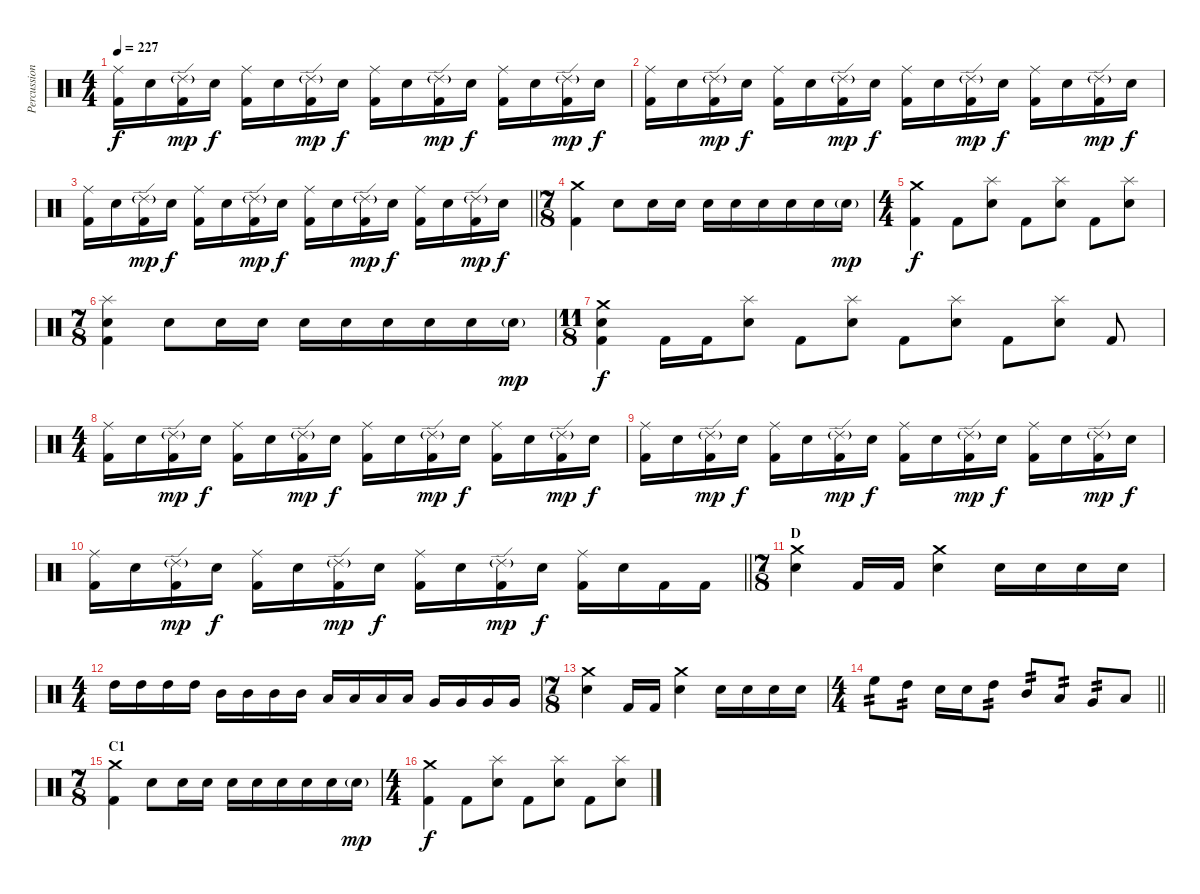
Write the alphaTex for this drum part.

\track ("Percussion" "Percussion") {instrument percussion}
\staff {score}
\articulation defaults
\ts (4 4)
\tempo 227
\clef neutral
\ks c
("Ride (middle)" "Kick (hit) 2").16{dy f} "Electric Snare (hit)".16 ("Ride (edge) 2"{g} "Kick (hit) 2").16{dy mp} "Electric Snare (hit)".16{dy f} ("Ride (middle)" "Kick (hit) 2").16 "Electric Snare (hit)".16 ("Ride (edge) 2"{g} "Kick (hit) 2").16{dy mp} "Electric Snare (hit)".16{dy f} ("Ride (middle)" "Kick (hit) 2").16 "Electric Snare (hit)".16 ("Ride (edge) 2"{g} "Kick (hit) 2").16{dy mp} "Electric Snare (hit)".16{dy f} ("Ride (middle)" "Kick (hit) 2").16 "Electric Snare (hit)".16 ("Ride (edge) 2"{g} "Kick (hit) 2").16{dy mp} "Electric Snare (hit)".16{dy f} |
("Ride (middle)" "Kick (hit) 2").16 "Electric Snare (hit)".16 ("Ride (edge) 2"{g} "Kick (hit) 2").16{dy mp} "Electric Snare (hit)".16{dy f} ("Ride (middle)" "Kick (hit) 2").16 "Electric Snare (hit)".16 ("Ride (edge) 2"{g} "Kick (hit) 2").16{dy mp} "Electric Snare (hit)".16{dy f} ("Ride (middle)" "Kick (hit) 2").16 "Electric Snare (hit)".16 ("Ride (edge) 2"{g} "Kick (hit) 2").16{dy mp} "Electric Snare (hit)".16{dy f} ("Ride (middle)" "Kick (hit) 2").16 "Electric Snare (hit)".16 ("Ride (edge) 2"{g} "Kick (hit) 2").16{dy mp} "Electric Snare (hit)".16{dy f} |
\barLineRight lightlight
("Ride (middle)" "Kick (hit) 2").16 "Electric Snare (hit)".16 ("Ride (edge) 2"{g} "Kick (hit) 2").16{dy mp} "Electric Snare (hit)".16{dy f} ("Ride (middle)" "Kick (hit) 2").16 "Electric Snare (hit)".16 ("Ride (edge) 2"{g} "Kick (hit) 2").16{dy mp} "Electric Snare (hit)".16{dy f} ("Ride (middle)" "Kick (hit) 2").16 "Electric Snare (hit)".16 ("Ride (edge) 2"{g} "Kick (hit) 2").16{dy mp} "Electric Snare (hit)".16{dy f} ("Ride (middle)" "Kick (hit) 2").16 "Electric Snare (hit)".16 ("Ride (edge) 2"{g} "Kick (hit) 2").16{dy mp} "Electric Snare (hit)".16{dy f} |
\ts (7 8)
\section ("" "")
("Crash medium (hit)" "Kick (hit) 2").4 "Electric Snare (hit)".8 "Electric Snare (hit)".16 "Electric Snare (hit)".16 "Electric Snare (hit)".16 "Electric Snare (hit)".16 "Electric Snare (hit)".16 "Electric Snare (hit)".16 "Electric Snare (hit)".16 "Electric Snare (hit)"{g}.16{dy mp} |
\ts (4 4)
("Crash medium (hit)" "Kick (hit) 2").4{dy f} "Kick (hit) 2".8 ("Splash (hit)" "Electric Snare (hit)").8 "Kick (hit) 2".8 ("Splash (hit)" "Electric Snare (hit)").8 "Kick (hit) 2".8 ("Splash (hit)" "Electric Snare (hit)").8 |
\ts (7 8)
("Splash (hit)" "Electric Snare (hit)" "Kick (hit) 2").4 "Electric Snare (hit)".8 "Electric Snare (hit)".16 "Electric Snare (hit)".16 "Electric Snare (hit)".16 "Electric Snare (hit)".16 "Electric Snare (hit)".16 "Electric Snare (hit)".16 "Electric Snare (hit)".16 "Electric Snare (hit)"{g}.16{dy mp} |
\ts (11 8)
("Crash medium (hit)" "Electric Snare (hit)" "Kick (hit) 2").4{dy f} "Kick (hit) 2".16 "Kick (hit) 2".16 ("Splash (hit)" "Electric Snare (hit)").8 "Kick (hit) 2".8 ("Splash (hit)" "Electric Snare (hit)").8 "Kick (hit) 2".8 ("Splash (hit)" "Electric Snare (hit)").8 "Kick (hit) 2".8 ("Splash (hit)" "Electric Snare (hit)").8 "Kick (hit) 2".8 |
\ts (4 4)
("Ride (middle)" "Kick (hit) 2").16 "Electric Snare (hit)".16 ("Ride (edge) 2"{g} "Kick (hit) 2").16{dy mp} "Electric Snare (hit)".16{dy f} ("Ride (middle)" "Kick (hit) 2").16 "Electric Snare (hit)".16 ("Ride (edge) 2"{g} "Kick (hit) 2").16{dy mp} "Electric Snare (hit)".16{dy f} ("Ride (middle)" "Kick (hit) 2").16 "Electric Snare (hit)".16 ("Ride (edge) 2"{g} "Kick (hit) 2").16{dy mp} "Electric Snare (hit)".16{dy f} ("Ride (middle)" "Kick (hit) 2").16 "Electric Snare (hit)".16 ("Ride (edge) 2"{g} "Kick (hit) 2").16{dy mp} "Electric Snare (hit)".16{dy f} |
("Ride (middle)" "Kick (hit) 2").16 "Electric Snare (hit)".16 ("Ride (edge) 2"{g} "Kick (hit) 2").16{dy mp} "Electric Snare (hit)".16{dy f} ("Ride (middle)" "Kick (hit) 2").16 "Electric Snare (hit)".16 ("Ride (edge) 2"{g} "Kick (hit) 2").16{dy mp} "Electric Snare (hit)".16{dy f} ("Ride (middle)" "Kick (hit) 2").16 "Electric Snare (hit)".16 ("Ride (edge) 2"{g} "Kick (hit) 2").16{dy mp} "Electric Snare (hit)".16{dy f} ("Ride (middle)" "Kick (hit) 2").16 "Electric Snare (hit)".16 ("Ride (edge) 2"{g} "Kick (hit) 2").16{dy mp} "Electric Snare (hit)".16{dy f} |
\barLineRight lightlight
("Ride (middle)" "Kick (hit) 2").16 "Electric Snare (hit)".16 ("Ride (edge) 2"{g} "Kick (hit) 2").16{dy mp} "Electric Snare (hit)".16{dy f} ("Ride (middle)" "Kick (hit) 2").16 "Electric Snare (hit)".16 ("Ride (edge) 2"{g} "Kick (hit) 2").16{dy mp} "Electric Snare (hit)".16{dy f} ("Ride (middle)" "Kick (hit) 2").16 "Electric Snare (hit)".16 ("Ride (edge) 2"{g} "Kick (hit) 2").16{dy mp} "Electric Snare (hit)".16{dy f} ("Ride (middle)" "Kick (hit) 2").16 "Electric Snare (hit)".16 "Kick (hit) 2".16 "Kick (hit) 2".16 |
\ts (7 8)
\section ("" "D")
("Crash medium (hit)" "Electric Snare (hit)").4 "Kick (hit) 2".16 "Kick (hit) 2".16 ("Crash medium (hit)" "Electric Snare (hit)").4 "Electric Snare (hit)".16 "Electric Snare (hit)".16 "Electric Snare (hit)".16 "Electric Snare (hit)".16 |
\ts (4 4)
"High Tom (hit)".16 "High Tom (hit)".16 "High Tom (hit)".16 "High Tom (hit)".16 "Mid Tom (hit)".16 "Mid Tom (hit)".16 "Mid Tom (hit)".16 "Mid Tom (hit)".16 "Low Tom (hit)".16 "Low Tom (hit)".16 "Low Tom (hit)".16 "Low Tom (hit)".16 "Very Low Tom (hit)".16 "Very Low Tom (hit)".16 "Very Low Tom (hit)".16 "Very Low Tom (hit)".16 |
\ts (7 8)
("Crash medium (hit)" "Electric Snare (hit)").4 "Kick (hit) 2".16 "Kick (hit) 2".16 ("Crash medium (hit)" "Electric Snare (hit)").4 "Electric Snare (hit)".16 "Electric Snare (hit)".16 "Electric Snare (hit)".16 "Electric Snare (hit)".16 |
\ts (4 4)
\barLineRight lightlight "High Floor Tom (hit)".8{tp 2} "High Tom (hit)".8{tp 2} "Electric Snare (hit)".16 "Electric Snare (hit)".16 "High Tom (hit)".8{tp 2} "Mid Tom (hit)".8{tp 2} "Low Tom (hit)".8{tp 2} "Very Low Tom (hit)".8{tp 2} "Low Tom (hit)".8
|
\ts (7 8)
\section ("" "C1")
("Crash medium (hit)" "Kick (hit) 2").4 "Electric Snare (hit)".8 "Electric Snare (hit)".16 "Electric Snare (hit)".16 "Electric Snare (hit)".16 "Electric Snare (hit)".16 "Electric Snare (hit)".16 "Electric Snare (hit)".16 "Electric Snare (hit)".16 "Electric Snare (hit)"{g}.16{dy mp} |
\ts (4 4)
("Crash medium (hit)" "Kick (hit) 2").4{dy f} "Kick (hit) 2".8 ("Splash (hit)" "Electric Snare (hit)").8 "Kick (hit) 2".8 ("Splash (hit)" "Electric Snare (hit)").8 "Kick (hit) 2".8 ("Splash (hit)" "Electric Snare (hit)").8
